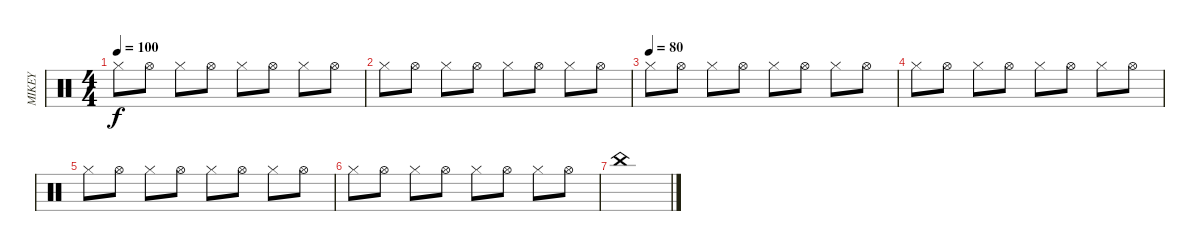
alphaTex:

\track ("MIKEY" "MIKEY") {instrument percussion}
\staff {score}
\articulation defaults
\ts (4 4)
\tempo 100
\clef neutral
\ks c "Hi-Hat (closed)".8{dy f} "Hi-Hat (open)".8 "Hi-Hat (closed)".8 "Hi-Hat (open)".8 "Hi-Hat (closed)".8 "Hi-Hat (open)".8 "Hi-Hat (closed)".8 "Hi-Hat (open)".8
|
"Hi-Hat (closed)".8 "Hi-Hat (open)".8 "Hi-Hat (closed)".8 "Hi-Hat (open)".8 "Hi-Hat (closed)".8 "Hi-Hat (open)".8 "Hi-Hat (closed)".8 "Hi-Hat (open)".8 |
\tempo (80)
"Hi-Hat (closed)".8 "Hi-Hat (open)".8 "Hi-Hat (closed)".8 "Hi-Hat (open)".8 "Hi-Hat (closed)".8 "Hi-Hat (open)".8 "Hi-Hat (closed)".8 "Hi-Hat (open)".8 |
"Hi-Hat (closed)".8 "Hi-Hat (open)".8 "Hi-Hat (closed)".8 "Hi-Hat (open)".8 "Hi-Hat (closed)".8 "Hi-Hat (open)".8 "Hi-Hat (closed)".8 "Hi-Hat (open)".8 |
"Hi-Hat (closed)".8 "Hi-Hat (open)".8 "Hi-Hat (closed)".8 "Hi-Hat (open)".8 "Hi-Hat (closed)".8 "Hi-Hat (open)".8 "Hi-Hat (closed)".8 "Hi-Hat (open)".8 |
"Hi-Hat (closed)".8 "Hi-Hat (open)".8 "Hi-Hat (closed)".8 "Hi-Hat (open)".8 "Hi-Hat (closed)".8 "Hi-Hat (open)".8 "Hi-Hat (closed)".8 "Hi-Hat (open)".8 |
"China (hit)".1
